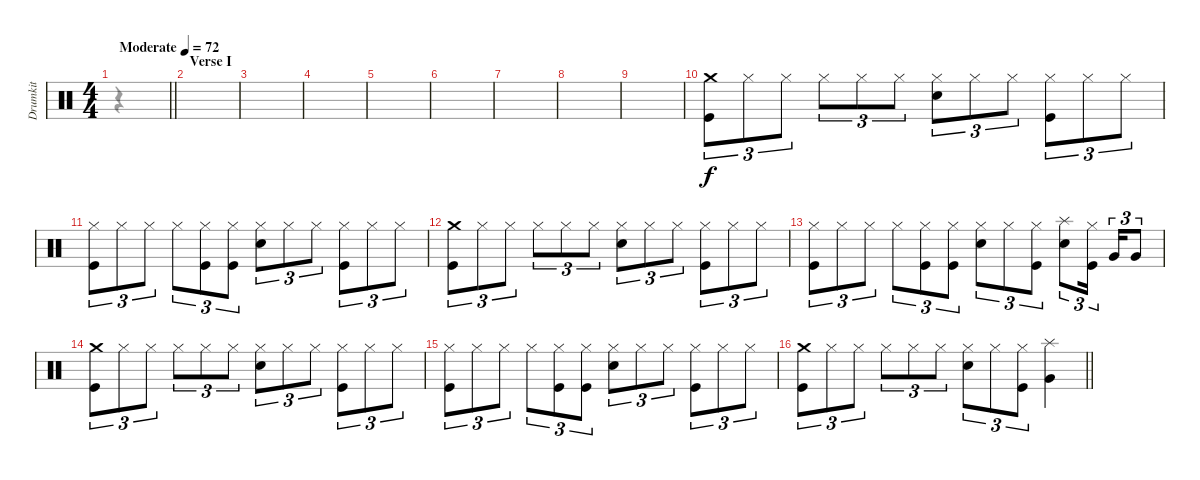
\track ("Drumkit" "Drumkit") {instrument percussion}
\staff {score}
\articulation defaults
\voice
\ts (4 4)
\tempo (72 "Moderate")
\clef neutral
\barLineRight lightlight
\ks c
|
\section ("" "Verse I")
|
|
|
|
|
|
|
|
("Kick (hit)" "Crash medium (hit)").8{tu (3 2)} "Hi-Hat (closed)".8{tu (3 2)} "Hi-Hat (closed)".8{tu (3 2)} "Hi-Hat (closed)".8{tu (3 2)} "Hi-Hat (closed)".8{tu (3 2)} "Hi-Hat (closed)".8{tu (3 2)} ("Hi-Hat (closed)" "Snare (hit) 2").8{tu (3 2)} "Hi-Hat (closed)".8{tu (3 2)} "Hi-Hat (closed)".8{tu (3 2)} ("Hi-Hat (closed)" "Kick (hit)").8{tu (3 2)} "Hi-Hat (closed)".8{tu (3 2)} "Hi-Hat (closed)".8{tu (3 2)} |
("Hi-Hat (closed)" "Kick (hit)").8{tu (3 2)} "Hi-Hat (closed)".8{tu (3 2)} "Hi-Hat (closed)".8{tu (3 2)} "Hi-Hat (closed)".8{tu (3 2)} ("Hi-Hat (closed)" "Kick (hit)").8{tu (3 2)} ("Hi-Hat (closed)" "Kick (hit)").8{tu (3 2)} ("Hi-Hat (closed)" "Snare (hit) 2").8{tu (3 2)} "Hi-Hat (closed)".8{tu (3 2)} "Hi-Hat (closed)".8{tu (3 2)} ("Hi-Hat (closed)" "Kick (hit)").8{tu (3 2)} "Hi-Hat (closed)".8{tu (3 2)} "Hi-Hat (closed)".8{tu (3 2)} |
("Kick (hit)" "Crash medium (hit)").8{tu (3 2)} "Hi-Hat (closed)".8{tu (3 2)} "Hi-Hat (closed)".8{tu (3 2)} "Hi-Hat (closed)".8{tu (3 2)} "Hi-Hat (closed)".8{tu (3 2)} "Hi-Hat (closed)".8{tu (3 2)} ("Hi-Hat (closed)" "Snare (hit) 2").8{tu (3 2)} "Hi-Hat (closed)".8{tu (3 2)} "Hi-Hat (closed)".8{tu (3 2)} ("Hi-Hat (closed)" "Kick (hit)").8{tu (3 2)} "Hi-Hat (closed)".8{tu (3 2)} "Hi-Hat (closed)".8{tu (3 2)} |
("Hi-Hat (closed)" "Kick (hit)").8{tu (3 2)} "Hi-Hat (closed)".8{tu (3 2)} "Hi-Hat (closed)".8{tu (3 2)} "Hi-Hat (closed)".8{tu (3 2)} ("Hi-Hat (closed)" "Kick (hit)").8{tu (3 2)} ("Hi-Hat (closed)" "Kick (hit)").8{tu (3 2)} ("Hi-Hat (closed)" "Snare (hit) 2").8{tu (3 2)} "Hi-Hat (closed)".8{tu (3 2)} ("Hi-Hat (closed)" "Kick (hit)").8{tu (3 2)} ("Snare (hit) 2" "Splash (hit)").8{tu (3 2)} ("Hi-Hat (closed)" "Kick (hit)").16{tu (3 2) beam splitsecondary} "Very Low Tom (hit)".16{tu (3 2)} "Very Low Tom (hit)".8{tu (3 2)} |
("Kick (hit)" "Crash medium (hit)").8{tu (3 2)} "Hi-Hat (closed)".8{tu (3 2)} "Hi-Hat (closed)".8{tu (3 2)} "Hi-Hat (closed)".8{tu (3 2)} "Hi-Hat (closed)".8{tu (3 2)} "Hi-Hat (closed)".8{tu (3 2)} ("Hi-Hat (closed)" "Snare (hit) 2").8{tu (3 2)} "Hi-Hat (closed)".8{tu (3 2)} "Hi-Hat (closed)".8{tu (3 2)} ("Hi-Hat (closed)" "Kick (hit)").8{tu (3 2)} "Hi-Hat (closed)".8{tu (3 2)} "Hi-Hat (closed)".8{tu (3 2)} |
("Hi-Hat (closed)" "Kick (hit)").8{tu (3 2)} "Hi-Hat (closed)".8{tu (3 2)} "Hi-Hat (closed)".8{tu (3 2)} "Hi-Hat (closed)".8{tu (3 2)} ("Hi-Hat (closed)" "Kick (hit)").8{tu (3 2)} ("Hi-Hat (closed)" "Kick (hit)").8{tu (3 2)} ("Hi-Hat (closed)" "Snare (hit) 2").8{tu (3 2)} "Hi-Hat (closed)".8{tu (3 2)} "Hi-Hat (closed)".8{tu (3 2)} ("Hi-Hat (closed)" "Kick (hit)").8{tu (3 2)} "Hi-Hat (closed)".8{tu (3 2)} "Hi-Hat (closed)".8{tu (3 2)} |
\barLineRight lightlight
("Kick (hit)" "Crash medium (hit)").8{tu (3 2)} "Hi-Hat (closed)".8{tu (3 2)} "Hi-Hat (closed)".8{tu (3 2)} "Hi-Hat (closed)".8{tu (3 2)} "Hi-Hat (closed)".8{tu (3 2)} "Hi-Hat (closed)".8{tu (3 2)} ("Hi-Hat (closed)" "Snare (hit) 2").8{tu (3 2)} "Hi-Hat (closed)".8{tu (3 2)} ("Hi-Hat (closed)" "Kick (hit)").8{tu (3 2)} ("Very Low Tom (hit)" "Splash (hit)").4
\voice
\clef neutral
\ottava regular
\simile none
\barLineRight lightlight
\ks c
r.4{dy f} |
|
|
|
|
|
|
|
|
|
|
|
|
|
|
\barLineRight lightlight
